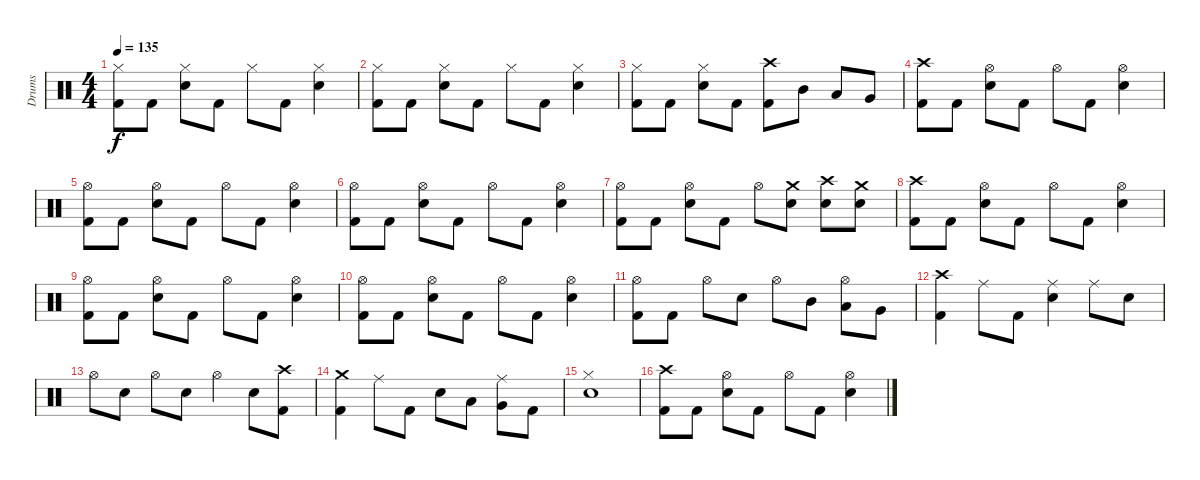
\track ("Drums" "Drums") {instrument percussion}
\staff {score}
\articulation defaults
\ts (4 4)
\tempo 135
\clef neutral
\ks c
("Hi-Hat (closed)" "Kick (hit) 2").8{dy f} "Kick (hit) 2".8 ("Hi-Hat (closed)" "Electric Snare (hit)").8 "Kick (hit) 2".8 "Hi-Hat (closed)".8 "Kick (hit) 2".8 ("Hi-Hat (closed)" "Electric Snare (hit)").4 |
("Hi-Hat (closed)" "Kick (hit) 2").8 "Kick (hit) 2".8 ("Hi-Hat (closed)" "Electric Snare (hit)").8 "Kick (hit) 2".8 "Hi-Hat (closed)".8 "Kick (hit) 2".8 ("Hi-Hat (closed)" "Electric Snare (hit)").4 |
("Hi-Hat (closed)" "Kick (hit) 2").8 "Kick (hit) 2".8 ("Hi-Hat (closed)" "Electric Snare (hit)").8 "Kick (hit) 2".8 ("Crash high (hit)" "Kick (hit) 2").8 "Mid Tom (hit)".8 "Low Tom (hit)".8 "Very Low Tom (hit)".8 |
("Crash high (hit)" "Kick (hit) 2").8 "Kick (hit) 2".8 ("Hi-Hat (open)" "Electric Snare (hit)").8 "Kick (hit) 2".8 "Hi-Hat (open)".8 "Kick (hit) 2".8 ("Hi-Hat (open)" "Electric Snare (hit)").4 |
("Hi-Hat (open)" "Kick (hit) 2").8 "Kick (hit) 2".8 ("Hi-Hat (open)" "Electric Snare (hit)").8 "Kick (hit) 2".8 "Hi-Hat (open)".8 "Kick (hit) 2".8 ("Hi-Hat (open)" "Electric Snare (hit)").4 |
("Hi-Hat (open)" "Kick (hit) 2").8 "Kick (hit) 2".8 ("Hi-Hat (open)" "Electric Snare (hit)").8 "Kick (hit) 2".8 "Hi-Hat (open)".8 "Kick (hit) 2".8 ("Hi-Hat (open)" "Electric Snare (hit)").4 |
("Hi-Hat (open)" "Kick (hit) 2").8 "Kick (hit) 2".8 ("Hi-Hat (open)" "Electric Snare (hit)").8 "Kick (hit) 2".8 "Hi-Hat (open)".8 ("Electric Snare (hit)" "Crash medium (hit)").8 ("Crash high (hit)" "Electric Snare (hit)").8 ("Electric Snare (hit)" "Crash medium (hit)").8 |
("Crash high (hit)" "Kick (hit) 2").8 "Kick (hit) 2".8 ("Hi-Hat (open)" "Electric Snare (hit)").8 "Kick (hit) 2".8 "Hi-Hat (open)".8 "Kick (hit) 2".8 ("Hi-Hat (open)" "Electric Snare (hit)").4 |
("Hi-Hat (open)" "Kick (hit) 2").8 "Kick (hit) 2".8 ("Hi-Hat (open)" "Electric Snare (hit)").8 "Kick (hit) 2".8 "Hi-Hat (open)".8 "Kick (hit) 2".8 ("Hi-Hat (open)" "Electric Snare (hit)").4 |
("Hi-Hat (open)" "Kick (hit) 2").8 "Kick (hit) 2".8 ("Hi-Hat (open)" "Electric Snare (hit)").8 "Kick (hit) 2".8 "Hi-Hat (open)".8 "Kick (hit) 2".8 ("Hi-Hat (open)" "Electric Snare (hit)").4 |
("Hi-Hat (open)" "Kick (hit) 2").8 "Kick (hit) 2".8 "Hi-Hat (open)".8 "Electric Snare (hit)".8 "Hi-Hat (open)".8 "Mid Tom (hit)".8 ("Hi-Hat (open)" "Low Tom (hit)").8 "Very Low Tom (hit)".8 |
("Crash high (hit)" "Kick (hit) 2").4 "Ride (middle)".8 "Kick (hit) 2".8 ("Ride (middle)" "Electric Snare (hit)").4 "Ride (middle)".8 "Electric Snare (hit)".8 |
"Hi-Hat (open)".8 "Electric Snare (hit)".8 "Hi-Hat (open)".8 "Electric Snare (hit)".8 "Hi-Hat (open)".4 "Electric Snare (hit)".8 ("Crash high (hit)" "Kick (hit) 2").8 |
("Kick (hit) 2" "Crash medium (hit)").4 "Ride (middle)".8 "Kick (hit) 2".8 "Electric Snare (hit)".8 "Low Tom (hit)".8 ("Ride (middle)" "Very Low Tom (hit)").8 "Kick (hit) 2".8 |
("Hi-Hat (closed)" "Electric Snare (hit)").1 |
("Crash high (hit)" "Kick (hit) 2").8 "Kick (hit) 2".8 ("Hi-Hat (open)" "Electric Snare (hit)").8 "Kick (hit) 2".8 "Hi-Hat (open)".8 "Kick (hit) 2".8 ("Hi-Hat (open)" "Electric Snare (hit)").4
